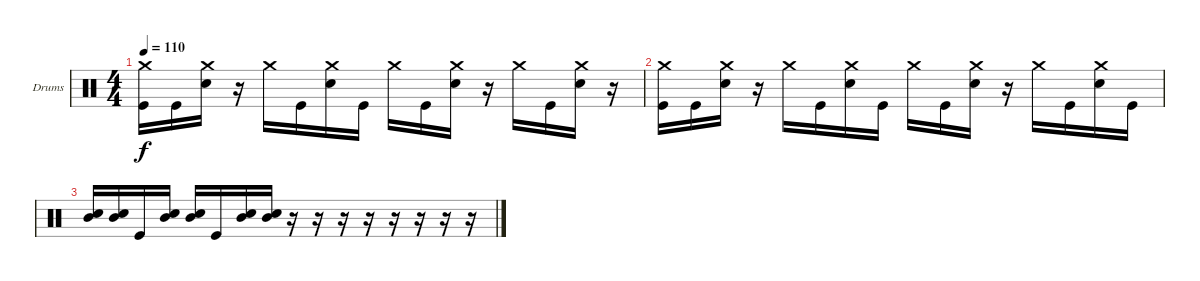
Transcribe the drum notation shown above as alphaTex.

\bracketExtendMode groupsimilarinstruments
\firstSystemTrackNameOrientation horizontal
\otherSystemsTrackNameOrientation horizontal
\track ("Drumkit" "Drums") {instrument percussion}
\staff {score}
\articulation defaults
\ts (4 4)
\tempo 110
\clef neutral
\ks c
("Crash medium (hit)" "Kick (hit)").16{dy f} "Kick (hit)".16 ("Crash medium (hit)" "Snare (hit) 2").16 r.16 "Crash medium (hit)".16 "Kick (hit)".16 ("Crash medium (hit)" "Snare (hit) 2").16 "Kick (hit)".16 "Crash medium (hit)".16 "Kick (hit)".16 ("Crash medium (hit)" "Snare (hit) 2").16 r.16 "Crash medium (hit)".16 "Kick (hit)".16 ("Crash medium (hit)" "Snare (hit) 2").16 r.16 |
("Crash medium (hit)" "Kick (hit)").16 "Kick (hit)".16 ("Crash medium (hit)" "Snare (hit) 2").16 r.16 "Crash medium (hit)".16 "Kick (hit)".16 ("Crash medium (hit)" "Snare (hit) 2").16 "Kick (hit)".16 "Crash medium (hit)".16 "Kick (hit)".16 ("Crash medium (hit)" "Snare (hit) 2").16 r.16 "Crash medium (hit)".16 "Kick (hit)".16 ("Crash medium (hit)" "Snare (hit) 2").16 "Kick (hit)".16 |
("Snare (hit) 2" "Mid Tom (hit)").16 ("Snare (hit) 2" "Mid Tom (hit)").16 "Kick (hit)".16 ("Snare (hit) 2" "Mid Tom (hit)").16 ("Snare (hit) 2" "Mid Tom (hit)").16 "Kick (hit)".16 ("Snare (hit) 2" "Mid Tom (hit)").16 ("Snare (hit) 2" "Mid Tom (hit)").16 r.16 r.16 r.16 r.16 r.16 r.16 r.16 r.16
